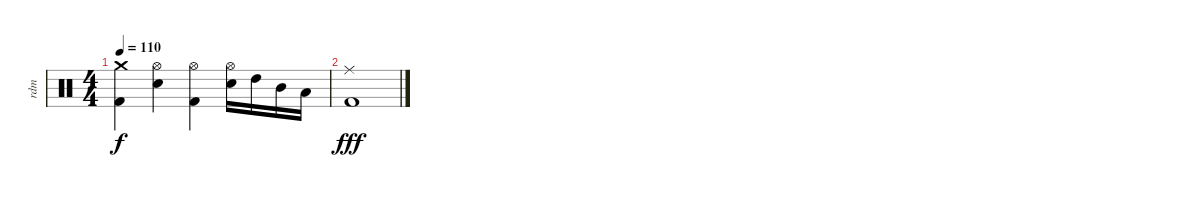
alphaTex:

\track ("rdm" "rdm") {instrument percussion}
\staff {score}
\articulation defaults
\ts (4 4)
\tempo 110
\clef neutral
\ks c
("Crash medium (hit)" "Kick (hit) 2").4{dy f} ("Hi-Hat (open)" "Snare (hit) 2").4 ("Hi-Hat (open)" "Kick (hit) 2").4 ("Hi-Hat (open)" "Snare (hit) 2").16 "High Tom (hit)".16 "Mid Tom (hit)".16 "Low Tom (hit)".16 |
("Ride (middle)" "Kick (hit) 2").1{dy fff}
